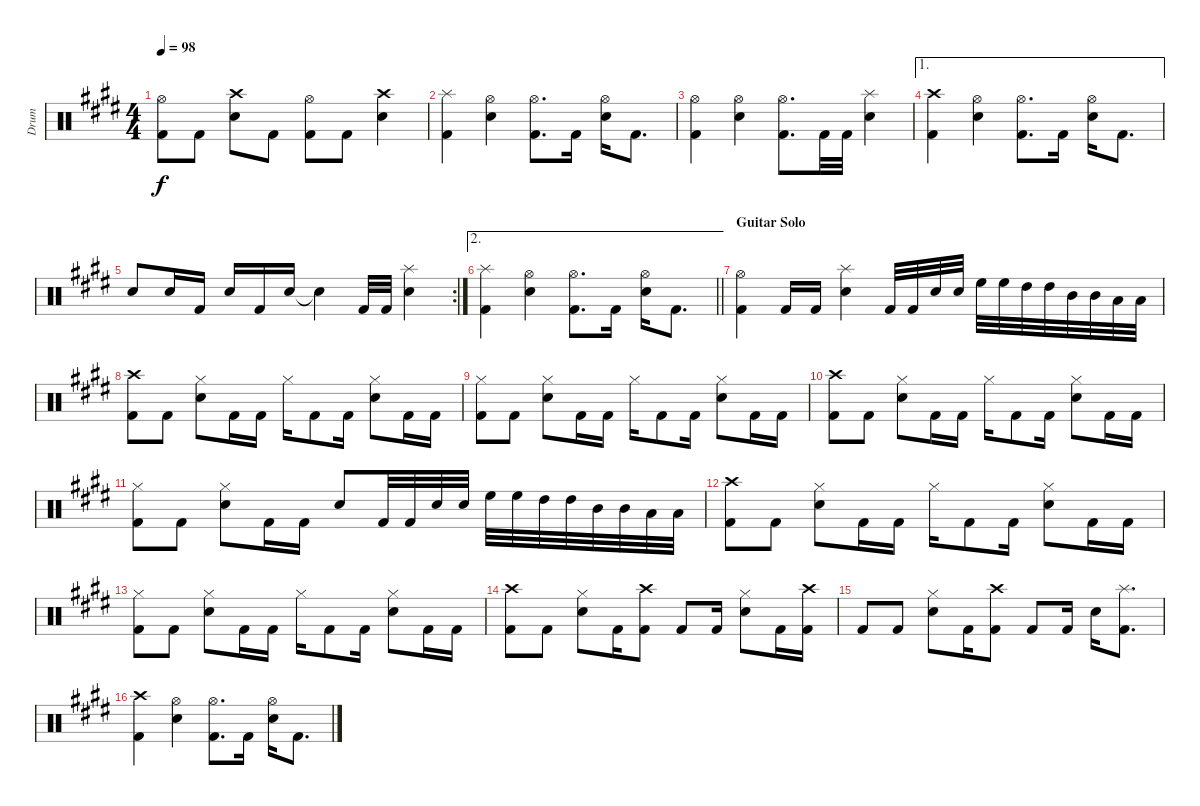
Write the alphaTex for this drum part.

\track ("Drum" "Drum") {instrument percussion}
\staff {score}
\articulation defaults
\ts (4 4)
\tempo 98
\clef neutral
\ks c#minor
("Kick (hit) 2" "Hi-Hat (open)").8{dy f} "Kick (hit) 2".8 ("Snare (hit) 2" "Crash high (hit)").8 "Kick (hit) 2".8 ("Kick (hit) 2" "Hi-Hat (open)").8 "Kick (hit) 2".8 ("Snare (hit) 2" "Crash high (hit)").4 |
\ks e
("Kick (hit) 2" "Splash (hit)").4 ("Snare (hit) 2" "Hi-Hat (open)").4 ("Kick (hit) 2" "Hi-Hat (open)").8{d} "Kick (hit) 2".16 ("Snare (hit) 2" "Hi-Hat (open)").16 "Kick (hit) 2".8{d} |
\ks c#minor
("Kick (hit) 2" "Hi-Hat (open)").4 ("Snare (hit) 2" "Hi-Hat (open)").4 ("Kick (hit) 2" "Hi-Hat (open)").8{d} "Kick (hit) 2".32 "Kick (hit) 2".32 ("Snare (hit) 2" "Splash (hit)").4 |
\ae 1
("Kick (hit) 2" "Crash high (hit)").4 ("Snare (hit) 2" "Hi-Hat (open)").4 ("Kick (hit) 2" "Hi-Hat (open)").8{d} "Kick (hit) 2".16 ("Snare (hit) 2" "Hi-Hat (open)").16 "Kick (hit) 2".8{d} |
\rc 2 "Snare (hit) 2".8 "Snare (hit) 2".16 "Kick (hit) 2".16 "Snare (hit) 2".16 "Kick (hit) 2".16 "Snare (hit) 2".16 "Snare (hit) 2"{t}.4 "Kick (hit) 2".32 "Kick (hit) 2".32
("Snare (hit) 2" "Splash (hit)").4 |
\ae 2
\barLineRight lightlight
\ks e
("Kick (hit) 2" "Splash (hit)").4 ("Snare (hit) 2" "Hi-Hat (open)").4 ("Kick (hit) 2" "Hi-Hat (open)").8{d} "Kick (hit) 2".16 ("Snare (hit) 2" "Hi-Hat (open)").16 "Kick (hit) 2".8{d} |
\section ("" "Guitar Solo")
\ks c#minor
("Kick (hit) 2" "Hi-Hat (open)").4 "Kick (hit) 2".16 "Kick (hit) 2".16 ("Snare (hit) 2" "Splash (hit)").4 "Kick (hit) 2".32 "Kick (hit) 2".32 "Snare (hit) 2".32 "Snare (hit) 2".32 "High Floor Tom (hit)".32 "High Floor Tom (hit)".32 "High Tom (hit)".32 "High Tom (hit)".32 "Mid Tom (hit)".32 "Mid Tom (hit)".32 "Low Tom (hit)".32 "Low Tom (hit)".32 |
("Kick (hit) 2" "Crash high (hit)").8 "Kick (hit) 2".8 ("Snare (hit) 2" "Hi-Hat (closed)").8 "Kick (hit) 2".16 "Kick (hit) 2".16 "Hi-Hat (closed)".16 "Kick (hit) 2".8 "Kick (hit) 2".16 ("Snare (hit) 2" "Hi-Hat (closed)").8 "Kick (hit) 2".16 "Kick (hit) 2".16 |
("Kick (hit) 2" "Hi-Hat (closed)").8 "Kick (hit) 2".8 ("Snare (hit) 2" "Hi-Hat (closed)").8 "Kick (hit) 2".16 "Kick (hit) 2".16 "Hi-Hat (closed)".16 "Kick (hit) 2".8 "Kick (hit) 2".16 ("Snare (hit) 2" "Hi-Hat (closed)").8 "Kick (hit) 2".16 "Kick (hit) 2".16 |
\ks e
("Kick (hit) 2" "Crash high (hit)").8 "Kick (hit) 2".8 ("Snare (hit) 2" "Hi-Hat (closed)").8 "Kick (hit) 2".16 "Kick (hit) 2".16 "Hi-Hat (closed)".16 "Kick (hit) 2".8 "Kick (hit) 2".16 ("Snare (hit) 2" "Hi-Hat (closed)").8 "Kick (hit) 2".16 "Kick (hit) 2".16 |
\ks c#minor
("Kick (hit) 2" "Hi-Hat (closed)").8 "Kick (hit) 2".8 ("Snare (hit) 2" "Hi-Hat (closed)").8 "Kick (hit) 2".16 "Kick (hit) 2".16 "Snare (hit) 2".8 "Kick (hit) 2".32 "Kick (hit) 2".32 "Snare (hit) 2".32 "Snare (hit) 2".32 "High Floor Tom (hit)".32 "High Floor Tom (hit)".32 "High Tom (hit)".32 "High Tom (hit)".32 "Mid Tom (hit)".32 "Mid Tom (hit)".32 "Low Tom (hit)".32 "Low Tom (hit)".32 |
("Kick (hit) 2" "Crash high (hit)").8 "Kick (hit) 2".8 ("Snare (hit) 2" "Hi-Hat (closed)").8 "Kick (hit) 2".16 "Kick (hit) 2".16 "Hi-Hat (closed)".16 "Kick (hit) 2".8 "Kick (hit) 2".16 ("Snare (hit) 2" "Hi-Hat (closed)").8 "Kick (hit) 2".16 "Kick (hit) 2".16 |
("Kick (hit) 2" "Hi-Hat (closed)").8 "Kick (hit) 2".8 ("Snare (hit) 2" "Hi-Hat (closed)").8 "Kick (hit) 2".16 "Kick (hit) 2".16 "Hi-Hat (closed)".16 "Kick (hit) 2".8 "Kick (hit) 2".16 ("Snare (hit) 2" "Hi-Hat (closed)").8 "Kick (hit) 2".16 "Kick (hit) 2".16 |
\ks e
("Kick (hit) 2" "Crash high (hit)").8 "Kick (hit) 2".8 ("Snare (hit) 2" "Hi-Hat (closed)").8 "Kick (hit) 2".16 ("Kick (hit) 2" "Crash high (hit)").8 "Kick (hit) 2".8 "Kick (hit) 2".16 ("Snare (hit) 2" "Hi-Hat (closed)").8 "Kick (hit) 2".16 ("Kick (hit) 2" "Crash high (hit)").16 |
"Kick (hit) 2".8 "Kick (hit) 2".8 ("Snare (hit) 2" "Hi-Hat (closed)").8 "Kick (hit) 2".16 ("Kick (hit) 2" "Crash high (hit)").8 "Kick (hit) 2".8 "Kick (hit) 2".16 "Snare (hit) 2".16 ("Kick (hit) 2" "Splash (hit)").8{d} |
("Kick (hit) 2" "Crash high (hit)").4 ("Snare (hit) 2" "Hi-Hat (open)").4 ("Kick (hit) 2" "Hi-Hat (open)").8{d} "Kick (hit) 2".16 ("Snare (hit) 2" "Hi-Hat (open)").16 "Kick (hit) 2".8{d}
